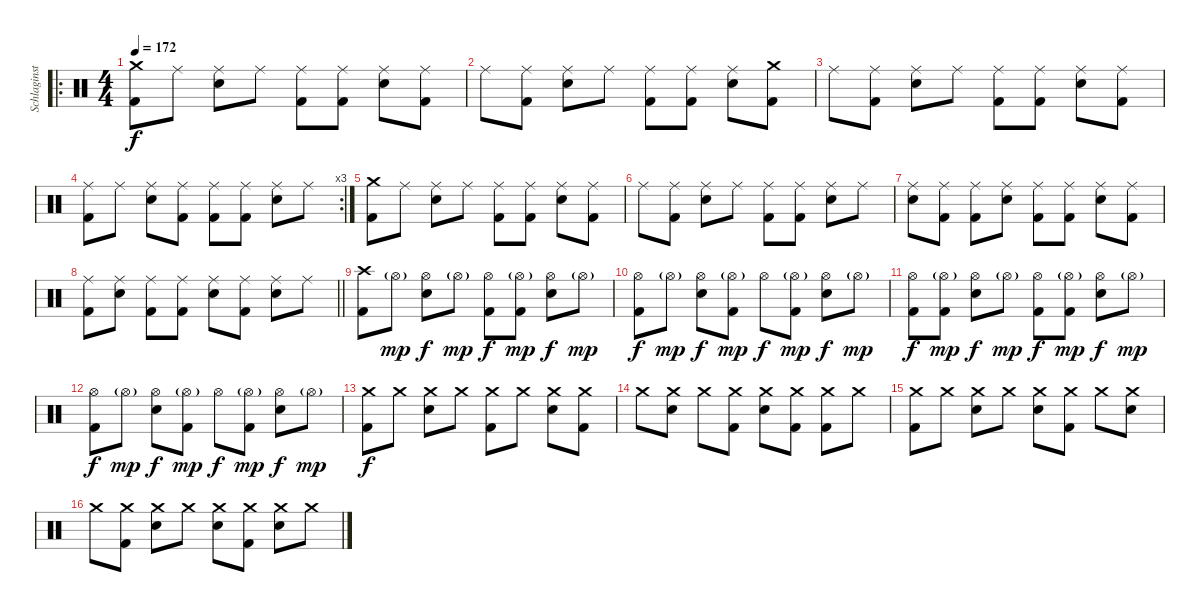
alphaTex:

\track ("Schlaginstrumente - Auswahl" "Schlaginst") {instrument percussion}
\staff {score}
\articulation defaults
\ro
\ts (4 4)
\tempo 172
\clef neutral
\ks c
("Crash medium (hit)" "Kick (hit) 2").8{dy f} "Ride (middle)".8 ("Ride (middle)" "Snare (hit) 2").8 "Ride (middle)".8 ("Ride (middle)" "Kick (hit) 2").8 ("Ride (middle)" "Kick (hit) 2").8 ("Ride (middle)" "Snare (hit) 2").8 ("Ride (middle)" "Kick (hit) 2").8 |
"Ride (middle)".8 ("Ride (middle)" "Kick (hit) 2").8 ("Ride (middle)" "Snare (hit) 2").8 "Ride (middle)".8 ("Ride (middle)" "Kick (hit) 2").8 ("Ride (middle)" "Kick (hit) 2").8 ("Ride (middle)" "Snare (hit) 2").8 ("Crash medium (hit)" "Kick (hit) 2").8 |
"Ride (middle)".8 ("Ride (middle)" "Kick (hit) 2").8 ("Ride (middle)" "Snare (hit) 2").8 "Ride (middle)".8 ("Ride (middle)" "Kick (hit) 2").8 ("Ride (middle)" "Kick (hit) 2").8 ("Ride (middle)" "Snare (hit) 2").8 ("Ride (middle)" "Kick (hit) 2").8 |
\rc 3
("Ride (middle)" "Kick (hit) 2").8 "Ride (middle)".8 ("Ride (middle)" "Snare (hit) 2").8 ("Ride (middle)" "Kick (hit) 2").8 ("Ride (middle)" "Kick (hit) 2").8 ("Ride (middle)" "Kick (hit) 2").8 ("Ride (middle)" "Snare (hit) 2").8 "Ride (middle)".8 |
("Crash medium (hit)" "Kick (hit) 2").8 "Ride (middle)".8 ("Ride (middle)" "Snare (hit) 2").8 "Ride (middle)".8 ("Ride (middle)" "Kick (hit) 2").8 ("Ride (middle)" "Kick (hit) 2").8 ("Ride (middle)" "Snare (hit) 2").8 ("Ride (middle)" "Kick (hit) 2").8 |
"Ride (middle)".8 ("Ride (middle)" "Kick (hit) 2").8 ("Ride (middle)" "Snare (hit) 2").8 "Ride (middle)".8 ("Ride (middle)" "Kick (hit) 2").8 ("Ride (middle)" "Kick (hit) 2").8 ("Ride (middle)" "Snare (hit) 2").8 "Ride (middle)".8 |
("Ride (middle)" "Snare (hit) 2").8 ("Ride (middle)" "Kick (hit) 2").8 ("Ride (middle)" "Kick (hit) 2").8 ("Ride (middle)" "Snare (hit) 2").8 ("Ride (middle)" "Kick (hit) 2").8 ("Ride (middle)" "Kick (hit) 2").8 ("Ride (middle)" "Snare (hit) 2").8 ("Ride (middle)" "Kick (hit) 2").8 |
\barLineRight lightlight
("Ride (middle)" "Kick (hit) 2").8 ("Ride (middle)" "Snare (hit) 2").8 ("Ride (middle)" "Kick (hit) 2").8 ("Ride (middle)" "Kick (hit) 2").8 ("Ride (middle)" "Snare (hit) 2").8 ("Ride (middle)" "Kick (hit) 2").8 ("Ride (middle)" "Snare (hit) 2").8 "Ride (middle)".8 |
("Crash high (hit)" "Kick (hit) 2").8 "Hi-Hat (open)"{g}.8{dy mp} ("Hi-Hat (open)" "Snare (hit) 2").8{dy f} "Hi-Hat (open)"{g}.8{dy mp} ("Hi-Hat (open)" "Kick (hit) 2").8{dy f} ("Hi-Hat (open)"{g} "Kick (hit) 2").8{dy mp} ("Hi-Hat (open)" "Snare (hit) 2").8{dy f} "Hi-Hat (open)"{g}.8{dy mp} |
("Hi-Hat (open)" "Kick (hit) 2").8{dy f} "Hi-Hat (open)"{g}.8{dy mp} ("Hi-Hat (open)" "Snare (hit) 2").8{dy f} ("Hi-Hat (open)"{g} "Kick (hit) 2").8{dy mp} "Hi-Hat (open)".8{dy f} ("Hi-Hat (open)"{g} "Kick (hit) 2").8{dy mp} ("Hi-Hat (open)" "Snare (hit) 2").8{dy f} "Hi-Hat (open)"{g}.8{dy mp} |
("Hi-Hat (open)" "Kick (hit) 2").8{dy f} ("Hi-Hat (open)"{g} "Kick (hit) 2").8{dy mp} ("Hi-Hat (open)" "Snare (hit) 2").8{dy f} "Hi-Hat (open)"{g}.8{dy mp} ("Hi-Hat (open)" "Kick (hit) 2").8{dy f} ("Hi-Hat (open)"{g} "Kick (hit) 2").8{dy mp} ("Hi-Hat (open)" "Snare (hit) 2").8{dy f} "Hi-Hat (open)"{g}.8{dy mp} |
("Hi-Hat (open)" "Kick (hit) 2").8{dy f} "Hi-Hat (open)"{g}.8{dy mp} ("Hi-Hat (open)" "Snare (hit) 2").8{dy f} ("Hi-Hat (open)"{g} "Kick (hit) 2").8{dy mp} "Hi-Hat (open)".8{dy f} ("Hi-Hat (open)"{g} "Kick (hit) 2").8{dy mp} ("Hi-Hat (open)" "Snare (hit) 2").8{dy f} "Hi-Hat (open)"{g}.8{dy mp} |
("Crash medium (hit)" "Kick (hit) 2").8{dy f} "Crash medium (hit)".8 ("Crash medium (hit)" "Snare (hit) 2").8 "Crash medium (hit)".8 ("Crash medium (hit)" "Kick (hit) 2").8 "Crash medium (hit)".8 ("Crash medium (hit)" "Snare (hit) 2").8 ("Crash medium (hit)" "Kick (hit) 2").8 |
"Crash medium (hit)".8 ("Crash medium (hit)" "Snare (hit) 2").8 "Crash medium (hit)".8 ("Crash medium (hit)" "Kick (hit) 2").8 ("Crash medium (hit)" "Snare (hit) 2").8 ("Crash medium (hit)" "Kick (hit) 2").8 ("Crash medium (hit)" "Kick (hit) 2").8 "Crash medium (hit)".8 |
("Crash medium (hit)" "Kick (hit) 2").8 "Crash medium (hit)".8 ("Crash medium (hit)" "Snare (hit) 2").8 "Crash medium (hit)".8 ("Crash medium (hit)" "Snare (hit) 2").8 ("Crash medium (hit)" "Kick (hit) 2").8 "Crash medium (hit)".8 ("Crash medium (hit)" "Snare (hit) 2").8 |
"Crash medium (hit)".8 ("Crash medium (hit)" "Kick (hit) 2").8 ("Crash medium (hit)" "Snare (hit) 2").8 "Crash medium (hit)".8 ("Crash medium (hit)" "Snare (hit) 2").8 ("Crash medium (hit)" "Kick (hit) 2").8 ("Crash medium (hit)" "Snare (hit) 2").8 "Crash medium (hit)".8
